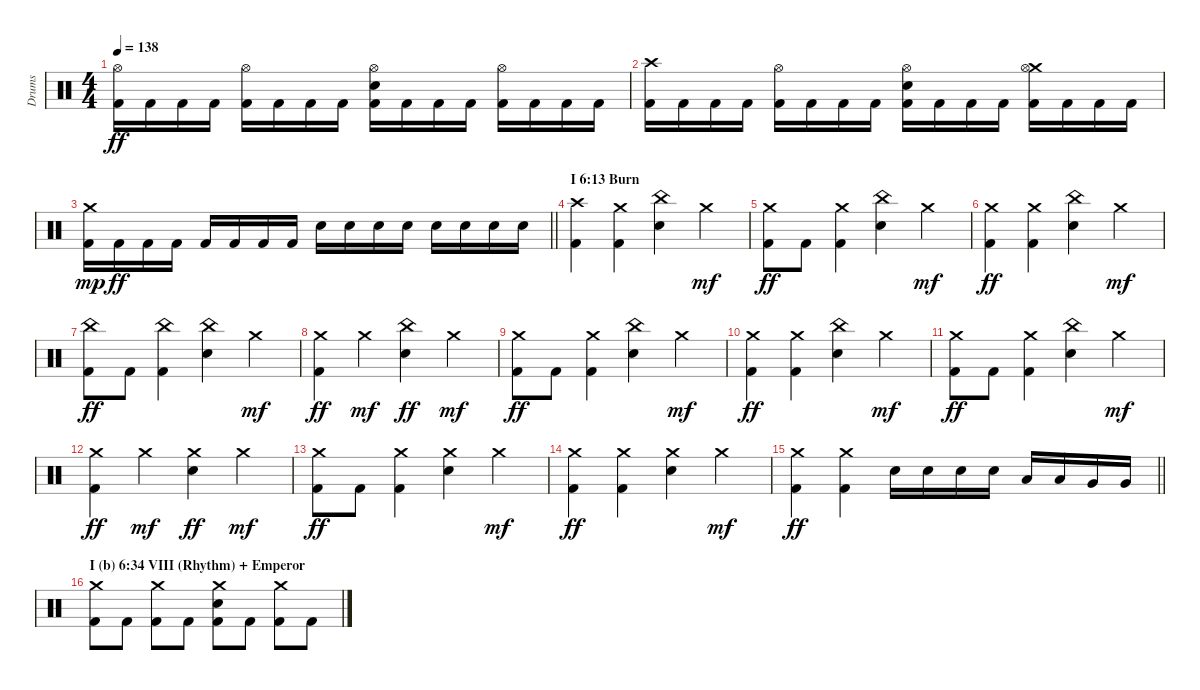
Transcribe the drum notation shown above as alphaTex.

\track ("Drums" "Drums") {instrument percussion}
\staff {score}
\articulation defaults
\ts (4 4)
\tempo 138
\clef neutral
\ks c
("Hi-Hat (open)" "Kick (hit) 2").16{dy ff} "Kick (hit) 2".16 "Kick (hit) 2".16 "Kick (hit) 2".16 ("Hi-Hat (open)" "Kick (hit) 2").16 "Kick (hit) 2".16 "Kick (hit) 2".16 "Kick (hit) 2".16 ("Hi-Hat (open)" "Electric Snare (hit)" "Kick (hit) 2").16 "Kick (hit) 2".16 "Kick (hit) 2".16 "Kick (hit) 2".16 ("Hi-Hat (open)" "Kick (hit) 2").16 "Kick (hit) 2".16 "Kick (hit) 2".16 "Kick (hit) 2".16 |
("Crash high (hit)" "Kick (hit) 2").16 "Kick (hit) 2".16 "Kick (hit) 2".16 "Kick (hit) 2".16 ("Hi-Hat (open)" "Kick (hit) 2").16 "Kick (hit) 2".16 "Kick (hit) 2".16 "Kick (hit) 2".16 ("Hi-Hat (open)" "Electric Snare (hit)" "Kick (hit) 2").16 "Kick (hit) 2".16 "Kick (hit) 2".16 "Kick (hit) 2".16 ("Crash medium (hit)" "Hi-Hat (open)" "Kick (hit) 2").16 "Kick (hit) 2".16 "Kick (hit) 2".16 "Kick (hit) 2".16 |
\barLineRight lightlight
("Crash medium (hit)" "Kick (hit) 2").16{dy mp} "Kick (hit) 2".16{dy ff} "Kick (hit) 2".16 "Kick (hit) 2".16 "Kick (hit) 2".16 "Kick (hit) 2".16 "Kick (hit) 2".16 "Kick (hit) 2".16 "Electric Snare (hit)".16 "Electric Snare (hit)".16 "Electric Snare (hit)".16 "Electric Snare (hit)".16 "Electric Snare (hit)".16 "Electric Snare (hit)".16 "Electric Snare (hit)".16 "Electric Snare (hit)".16 |
\section ("" "I 6:13 Burn")
("Crash high (hit)" "Kick (hit) 2").4 ("Crash medium (hit)" "Kick (hit) 2").4 ("China (hit)" "Electric Snare (hit)").4 "Crash medium (hit)".4{dy mf} |
("Crash medium (hit)" "Kick (hit) 2").8{dy ff} "Kick (hit) 2".8 ("Crash medium (hit)" "Kick (hit) 2").4 ("China (hit)" "Electric Snare (hit)").4 "Crash medium (hit)".4{dy mf} |
("Crash medium (hit)" "Kick (hit) 2").4{dy ff} ("Crash medium (hit)" "Kick (hit) 2").4 ("China (hit)" "Electric Snare (hit)").4 "Crash medium (hit)".4{dy mf} |
("China (hit)" "Kick (hit) 2").8{dy ff} "Kick (hit) 2".8 ("China (hit)" "Kick (hit) 2").4 ("China (hit)" "Electric Snare (hit)").4 "Crash medium (hit)".4{dy mf} |
("Crash medium (hit)" "Kick (hit) 2").4{dy ff} "Crash medium (hit)".4{dy mf} ("China (hit)" "Electric Snare (hit)").4{dy ff} "Crash medium (hit)".4{dy mf} |
("Crash medium (hit)" "Kick (hit) 2").8{dy ff} "Kick (hit) 2".8 ("Crash medium (hit)" "Kick (hit) 2").4 ("China (hit)" "Electric Snare (hit)").4 "Crash medium (hit)".4{dy mf} |
("Crash medium (hit)" "Kick (hit) 2").4{dy ff} ("Crash medium (hit)" "Kick (hit) 2").4 ("China (hit)" "Electric Snare (hit)").4 "Crash medium (hit)".4{dy mf} |
("Crash medium (hit)" "Kick (hit) 2").8{dy ff} "Kick (hit) 2".8 ("Crash medium (hit)" "Kick (hit) 2").4 ("China (hit)" "Electric Snare (hit)").4 "Crash medium (hit)".4{dy mf} |
("Crash medium (hit)" "Kick (hit) 2").4{dy ff} "Crash medium (hit)".4{dy mf} ("Crash medium (hit)" "Electric Snare (hit)").4{dy ff} "Crash medium (hit)".4{dy mf} |
("Crash medium (hit)" "Kick (hit) 2").8{dy ff} "Kick (hit) 2".8 ("Crash medium (hit)" "Kick (hit) 2").4 ("Crash medium (hit)" "Electric Snare (hit)").4 "Crash medium (hit)".4{dy mf} |
("Crash medium (hit)" "Kick (hit) 2").4{dy ff} ("Crash medium (hit)" "Kick (hit) 2").4 ("Crash medium (hit)" "Electric Snare (hit)").4 "Crash medium (hit)".4{dy mf} |
\barLineRight lightlight
("Crash medium (hit)" "Kick (hit) 2").4{dy ff} ("Crash medium (hit)" "Kick (hit) 2").4 "Electric Snare (hit)".16 "Electric Snare (hit)".16 "Electric Snare (hit)".16 "Electric Snare (hit)".16 "Low Tom (hit)".16 "Low Tom (hit)".16 "Very Low Tom (hit)".16 "Very Low Tom (hit)".16 |
\section ("" "I (b) 6:34 VIII (Rhythm) + Emperor")
("Crash medium (hit)" "Kick (hit) 2").8 "Kick (hit) 2".8 ("Crash medium (hit)" "Kick (hit) 2").8 "Kick (hit) 2".8 ("Crash medium (hit)" "Electric Snare (hit)" "Kick (hit) 2").8 "Kick (hit) 2".8 ("Crash medium (hit)" "Kick (hit) 2").8 "Kick (hit) 2".8
